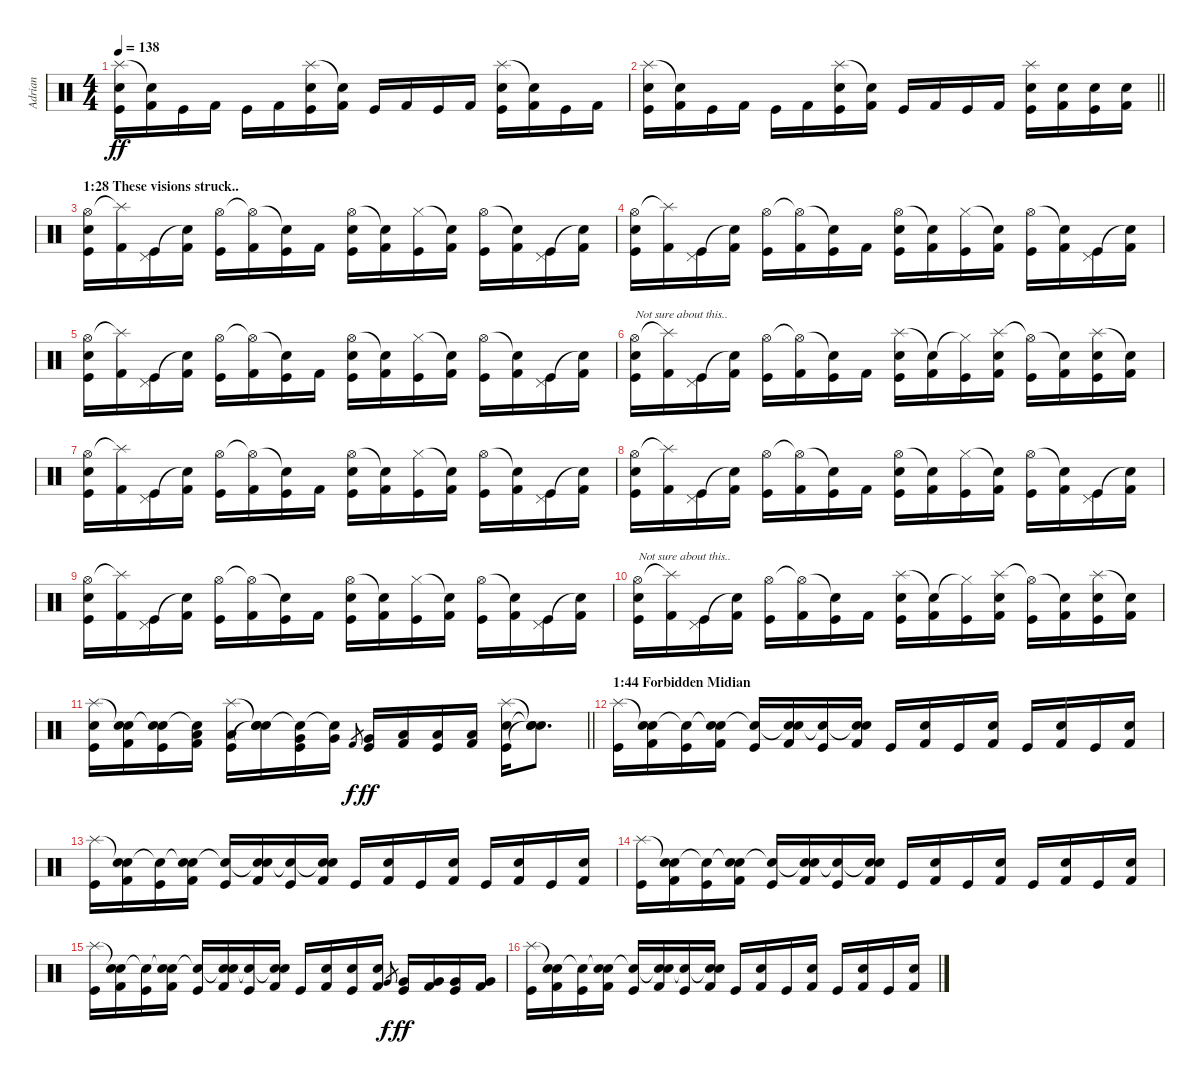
\track ("Adrian" "Adrian") {instrument percussion}
\staff {score}
\articulation defaults
\ts (4 4)
\tempo 138
\clef neutral
\ks c
("Splash (hit)" "Electric Snare (hit)" "Kick (hit)").16{dy ff} ("Snare (hit)"{t} "Kick (hit) 2").16 "Kick (hit)".16 "Kick (hit) 2".16 "Kick (hit)".16 "Kick (hit) 2".16 ("Splash (hit)" "Electric Snare (hit)" "Kick (hit)").16 ("Snare (hit)"{t} "Kick (hit) 2").16 "Kick (hit)".16 "Kick (hit) 2".16 "Kick (hit)".16 "Kick (hit) 2".16 ("Splash (hit)" "Electric Snare (hit)" "Kick (hit)").16 ("Snare (hit)"{t} "Kick (hit) 2").16 "Kick (hit)".16 "Kick (hit) 2".16 |
\barLineRight lightlight
("Splash (hit)" "Electric Snare (hit)" "Kick (hit)").16 ("Snare (hit)"{t} "Kick (hit) 2").16 "Kick (hit)".16 "Kick (hit) 2".16 "Kick (hit)".16 "Kick (hit) 2".16 ("Splash (hit)" "Electric Snare (hit)" "Kick (hit)").16 ("Snare (hit)"{t} "Kick (hit) 2").16 "Kick (hit)".16 "Kick (hit) 2".16 "Kick (hit)".16 "Kick (hit) 2".16 ("Splash (hit)" "Electric Snare (hit)" "Kick (hit)").16 ("Electric Snare (hit)" "Kick (hit) 2").16 ("Electric Snare (hit)" "Kick (hit)").16 ("Electric Snare (hit)" "Kick (hit) 2").16 |
\section ("" "1:28 These visions struck..")
("Hi-Hat (open)" "Electric Snare (hit)" "Kick (hit)").16 ("Splash (hit)"{t} "Kick (hit) 2").16 ("Pedal Hi-Hat (hit)" "Kick (hit)").16 ("Snare (hit)"{t} "Kick (hit) 2").16 ("Hi-Hat (open)" "Kick (hit)").16 ("Hi-Hat (open)"{t} "Kick (hit) 2").16 ("Snare (hit)"{t} "Kick (hit)").16 "Kick (hit) 2".16 ("Hi-Hat (open)" "Electric Snare (hit)" "Kick (hit)").16 ("Snare (hit)"{t} "Kick (hit) 2").16 ("Hi-Hat (closed)" "Kick (hit)").16 ("Snare (hit)"{t} "Kick (hit) 2").16 ("Hi-Hat (open)" "Kick (hit)").16 ("Snare (hit)"{t} "Kick (hit) 2").16 ("Pedal Hi-Hat (hit)" "Kick (hit)").16 ("Snare (hit)"{t} "Kick (hit) 2").16 |
("Hi-Hat (open)" "Electric Snare (hit)" "Kick (hit)").16 ("Splash (hit)"{t} "Kick (hit) 2").16 ("Pedal Hi-Hat (hit)" "Kick (hit)").16 ("Snare (hit)"{t} "Kick (hit) 2").16 ("Hi-Hat (open)" "Kick (hit)").16 ("Hi-Hat (open)"{t} "Kick (hit) 2").16 ("Snare (hit)"{t} "Kick (hit)").16 "Kick (hit) 2".16 ("Hi-Hat (open)" "Electric Snare (hit)" "Kick (hit)").16 ("Snare (hit)"{t} "Kick (hit) 2").16 ("Hi-Hat (closed)" "Kick (hit)").16 ("Snare (hit)"{t} "Kick (hit) 2").16 ("Hi-Hat (open)" "Kick (hit)").16 ("Snare (hit)"{t} "Kick (hit) 2").16 ("Pedal Hi-Hat (hit)" "Kick (hit)").16 ("Snare (hit)"{t} "Kick (hit) 2").16 |
("Hi-Hat (open)" "Electric Snare (hit)" "Kick (hit)").16 ("Splash (hit)"{t} "Kick (hit) 2").16 ("Pedal Hi-Hat (hit)" "Kick (hit)").16 ("Snare (hit)"{t} "Kick (hit) 2").16 ("Hi-Hat (open)" "Kick (hit)").16 ("Hi-Hat (open)"{t} "Kick (hit) 2").16 ("Snare (hit)"{t} "Kick (hit)").16 "Kick (hit) 2".16 ("Hi-Hat (open)" "Electric Snare (hit)" "Kick (hit)").16 ("Snare (hit)"{t} "Kick (hit) 2").16 ("Hi-Hat (closed)" "Kick (hit)").16 ("Snare (hit)"{t} "Kick (hit) 2").16 ("Hi-Hat (open)" "Kick (hit)").16 ("Snare (hit)"{t} "Kick (hit) 2").16 ("Pedal Hi-Hat (hit)" "Kick (hit)").16 ("Snare (hit)"{t} "Kick (hit) 2").16 |
("Hi-Hat (open)" "Electric Snare (hit)" "Kick (hit)").16{txt "Not sure about this.."} ("Splash (hit)"{t} "Kick (hit) 2").16 ("Pedal Hi-Hat (hit)" "Kick (hit)").16 ("Snare (hit)"{t} "Kick (hit) 2").16 ("Hi-Hat (open)" "Kick (hit)").16 ("Hi-Hat (open)"{t} "Kick (hit) 2").16 ("Snare (hit)"{t} "Kick (hit)").16 "Kick (hit) 2".16 ("Splash (hit)" "Electric Snare (hit)" "Kick (hit)").16 ("Snare (hit)"{t} "Kick (hit) 2").16 ("Hi-Hat (closed)"{t} "Kick (hit)").16 ("Splash (hit)" "Electric Snare (hit)" "Kick (hit) 2").16 ("Hi-Hat (open)"{t} "Kick (hit)").16 ("Snare (hit)"{t} "Kick (hit) 2").16 ("Splash (hit)" "Electric Snare (hit)" "Kick (hit)").16 ("Snare (hit)"{t} "Kick (hit) 2").16 |
("Hi-Hat (open)" "Electric Snare (hit)" "Kick (hit)").16 ("Splash (hit)"{t} "Kick (hit) 2").16 ("Pedal Hi-Hat (hit)" "Kick (hit)").16 ("Snare (hit)"{t} "Kick (hit) 2").16 ("Hi-Hat (open)" "Kick (hit)").16 ("Hi-Hat (open)"{t} "Kick (hit) 2").16 ("Snare (hit)"{t} "Kick (hit)").16 "Kick (hit) 2".16 ("Hi-Hat (open)" "Electric Snare (hit)" "Kick (hit)").16 ("Snare (hit)"{t} "Kick (hit) 2").16 ("Hi-Hat (closed)" "Kick (hit)").16 ("Snare (hit)"{t} "Kick (hit) 2").16 ("Hi-Hat (open)" "Kick (hit)").16 ("Snare (hit)"{t} "Kick (hit) 2").16 ("Pedal Hi-Hat (hit)" "Kick (hit)").16 ("Snare (hit)"{t} "Kick (hit) 2").16 |
("Hi-Hat (open)" "Electric Snare (hit)" "Kick (hit)").16 ("Splash (hit)"{t} "Kick (hit) 2").16 ("Pedal Hi-Hat (hit)" "Kick (hit)").16 ("Snare (hit)"{t} "Kick (hit) 2").16 ("Hi-Hat (open)" "Kick (hit)").16 ("Hi-Hat (open)"{t} "Kick (hit) 2").16 ("Snare (hit)"{t} "Kick (hit)").16 "Kick (hit) 2".16 ("Hi-Hat (open)" "Electric Snare (hit)" "Kick (hit)").16 ("Snare (hit)"{t} "Kick (hit) 2").16 ("Hi-Hat (closed)" "Kick (hit)").16 ("Snare (hit)"{t} "Kick (hit) 2").16 ("Hi-Hat (open)" "Kick (hit)").16 ("Snare (hit)"{t} "Kick (hit) 2").16 ("Pedal Hi-Hat (hit)" "Kick (hit)").16 ("Snare (hit)"{t} "Kick (hit) 2").16 |
("Hi-Hat (open)" "Electric Snare (hit)" "Kick (hit)").16 ("Splash (hit)"{t} "Kick (hit) 2").16 ("Pedal Hi-Hat (hit)" "Kick (hit)").16 ("Snare (hit)"{t} "Kick (hit) 2").16 ("Hi-Hat (open)" "Kick (hit)").16 ("Hi-Hat (open)"{t} "Kick (hit) 2").16 ("Snare (hit)"{t} "Kick (hit)").16 "Kick (hit) 2".16 ("Hi-Hat (open)" "Electric Snare (hit)" "Kick (hit)").16 ("Snare (hit)"{t} "Kick (hit) 2").16 ("Hi-Hat (closed)" "Kick (hit)").16 ("Snare (hit)"{t} "Kick (hit) 2").16 ("Hi-Hat (open)" "Kick (hit)").16 ("Snare (hit)"{t} "Kick (hit) 2").16 ("Pedal Hi-Hat (hit)" "Kick (hit)").16 ("Snare (hit)"{t} "Kick (hit) 2").16 |
("Hi-Hat (open)" "Electric Snare (hit)" "Kick (hit)").16{txt "Not sure about this.."} ("Splash (hit)"{t} "Kick (hit) 2").16 ("Pedal Hi-Hat (hit)" "Kick (hit)").16 ("Snare (hit)"{t} "Kick (hit) 2").16 ("Hi-Hat (open)" "Kick (hit)").16 ("Hi-Hat (open)"{t} "Kick (hit) 2").16 ("Snare (hit)"{t} "Kick (hit)").16 "Kick (hit) 2".16 ("Splash (hit)" "Electric Snare (hit)" "Kick (hit)").16 ("Snare (hit)"{t} "Kick (hit) 2").16 ("Hi-Hat (closed)"{t} "Kick (hit)").16 ("Splash (hit)" "Electric Snare (hit)" "Kick (hit) 2").16 ("Hi-Hat (open)"{t} "Kick (hit)").16 ("Snare (hit)"{t} "Kick (hit) 2").16 ("Splash (hit)" "Electric Snare (hit)" "Kick (hit)").16 ("Snare (hit)"{t} "Kick (hit) 2").16 |
\barLineRight lightlight
("Splash (hit)" "Electric Snare (hit)" "Kick (hit)").16 ("Snare (hit)"{t} "Electric Snare (hit)" "Kick (hit) 2").16 ("Snare (hit)"{t} "Electric Snare (hit)" "Kick (hit)").16 ("Snare (hit)"{t} "Low Tom (hit)" "Kick (hit) 2").16 ("Splash (hit)" "Low Tom (hit)" "Kick (hit)").16 ("Snare (hit)"{t} "Electric Snare (hit)" "Snare (hit)"{t}).16 ("Snare (hit)"{t} "Very Low Tom (hit)" "Kick (hit)").16 ("Snare (hit)"{t} "Very Low Tom (hit)").16 "Kick (hit) 2".8{gr dy f} ("Very Low Tom (hit)" "Kick (hit)").16{dy ff} ("Low Floor Tom (hit)" "Kick (hit) 2").16 ("Low Floor Tom (hit)" "Kick (hit)").16 ("Low Floor Tom (hit)" "Kick (hit) 2").16 ("Splash (hit)" "Electric Snare (hit)" "Kick (hit)").16 ("Snare (hit)"{t} "Snare (hit)"{t} "Snare (hit)"{t}).8{d} |
\section ("" "1:44 Forbidden Midian")
("Splash (hit)" "Kick (hit)").16 ("Snare (hit)"{t} "Electric Snare (hit)" "Kick (hit) 2").16 ("Snare (hit)"{t} "Kick (hit)").16 ("Snare (hit)"{t} "Electric Snare (hit)" "Kick (hit) 2").16 ("Snare (hit)"{t} "Kick (hit)").16 ("Snare (hit)"{t} "Electric Snare (hit)" "Kick (hit) 2").16 ("Snare (hit)"{t} "Kick (hit)").16 ("Snare (hit)"{t} "Electric Snare (hit)" "Kick (hit) 2").16 "Kick (hit)".16 ("Electric Snare (hit)" "Kick (hit) 2").16 "Kick (hit)".16 ("Electric Snare (hit)" "Kick (hit) 2").16 "Kick (hit)".16 ("Electric Snare (hit)" "Kick (hit) 2").16 "Kick (hit)".16 ("Electric Snare (hit)" "Kick (hit) 2").16 |
("Splash (hit)" "Kick (hit)").16 ("Snare (hit)"{t} "Electric Snare (hit)" "Kick (hit) 2").16 ("Snare (hit)"{t} "Kick (hit)").16 ("Snare (hit)"{t} "Electric Snare (hit)" "Kick (hit) 2").16 ("Snare (hit)"{t} "Kick (hit)").16 ("Snare (hit)"{t} "Electric Snare (hit)" "Kick (hit) 2").16 ("Snare (hit)"{t} "Kick (hit)").16 ("Snare (hit)"{t} "Electric Snare (hit)" "Kick (hit) 2").16 "Kick (hit)".16 ("Electric Snare (hit)" "Kick (hit) 2").16 "Kick (hit)".16 ("Electric Snare (hit)" "Kick (hit) 2").16 "Kick (hit)".16 ("Electric Snare (hit)" "Kick (hit) 2").16 "Kick (hit)".16 ("Electric Snare (hit)" "Kick (hit) 2").16 |
("Splash (hit)" "Kick (hit)").16 ("Snare (hit)"{t} "Electric Snare (hit)" "Kick (hit) 2").16 ("Snare (hit)"{t} "Kick (hit)").16 ("Snare (hit)"{t} "Electric Snare (hit)" "Kick (hit) 2").16 ("Snare (hit)"{t} "Kick (hit)").16 ("Snare (hit)"{t} "Electric Snare (hit)" "Kick (hit) 2").16 ("Snare (hit)"{t} "Kick (hit)").16 ("Snare (hit)"{t} "Electric Snare (hit)" "Kick (hit) 2").16 "Kick (hit)".16 ("Electric Snare (hit)" "Kick (hit) 2").16 "Kick (hit)".16 ("Electric Snare (hit)" "Kick (hit) 2").16 "Kick (hit)".16 ("Electric Snare (hit)" "Kick (hit) 2").16 "Kick (hit)".16 ("Electric Snare (hit)" "Kick (hit) 2").16 |
("Splash (hit)" "Kick (hit)").16 ("Snare (hit)"{t} "Electric Snare (hit)" "Kick (hit) 2").16 ("Snare (hit)"{t} "Kick (hit)").16 ("Snare (hit)"{t} "Electric Snare (hit)" "Kick (hit) 2").16 ("Snare (hit)"{t} "Kick (hit)").16 ("Snare (hit)"{t} "Electric Snare (hit)" "Kick (hit) 2").16 ("Snare (hit)"{t} "Kick (hit)").16 ("Snare (hit)"{t} "Electric Snare (hit)" "Kick (hit) 2").16 "Kick (hit)".16 ("Electric Snare (hit)" "Kick (hit) 2").16 ("Electric Snare (hit)" "Kick (hit)").16 ("Electric Snare (hit)" "Kick (hit) 2").16 "Very Low Tom (hit)".8{gr dy f} ("Very Low Tom (hit)" "Kick (hit)").16{dy ff} ("Very Low Tom (hit)" "Kick (hit) 2").16 ("Very Low Tom (hit)" "Kick (hit)").16 ("Very Low Tom (hit)" "Kick (hit) 2").16 |
("Splash (hit)" "Kick (hit)").16 ("Snare (hit)"{t} "Electric Snare (hit)" "Kick (hit) 2").16 ("Snare (hit)"{t} "Kick (hit)").16 ("Snare (hit)"{t} "Electric Snare (hit)" "Kick (hit) 2").16 ("Snare (hit)"{t} "Kick (hit)").16 ("Snare (hit)"{t} "Electric Snare (hit)" "Kick (hit) 2").16 ("Snare (hit)"{t} "Kick (hit)").16 ("Snare (hit)"{t} "Electric Snare (hit)" "Kick (hit) 2").16 "Kick (hit)".16 ("Electric Snare (hit)" "Kick (hit) 2").16 "Kick (hit)".16 ("Electric Snare (hit)" "Kick (hit) 2").16 "Kick (hit)".16 ("Electric Snare (hit)" "Kick (hit) 2").16 "Kick (hit)".16 ("Electric Snare (hit)" "Kick (hit) 2").16
